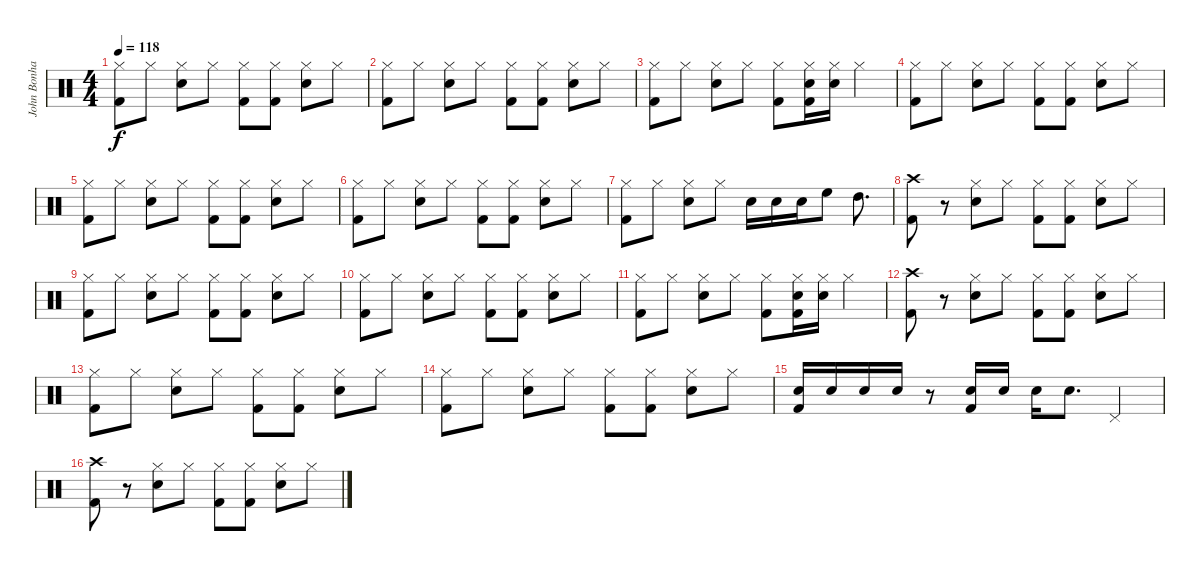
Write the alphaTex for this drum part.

\track ("John Bonham (Bateria)" "John Bonha") {instrument percussion}
\staff {score}
\articulation defaults
\ts (4 4)
\tempo 118
\clef neutral
\ks c
("Hi-Hat (closed)" "Kick (hit) 2").8{dy f} "Hi-Hat (closed)".8 ("Snare (hit) 2" "Hi-Hat (closed)").8 "Hi-Hat (closed)".8 ("Kick (hit) 2" "Hi-Hat (closed)").8 ("Kick (hit) 2" "Hi-Hat (closed)").8 ("Snare (hit) 2" "Hi-Hat (closed)").8 "Hi-Hat (closed)".8 |
("Hi-Hat (closed)" "Kick (hit) 2").8 "Hi-Hat (closed)".8 ("Snare (hit) 2" "Hi-Hat (closed)").8 "Hi-Hat (closed)".8 ("Kick (hit) 2" "Hi-Hat (closed)").8 ("Kick (hit) 2" "Hi-Hat (closed)").8 ("Snare (hit) 2" "Hi-Hat (closed)").8 "Hi-Hat (closed)".8 |
("Hi-Hat (closed)" "Kick (hit) 2").8 "Hi-Hat (closed)".8 ("Hi-Hat (closed)" "Snare (hit) 2").8 "Hi-Hat (closed)".8 ("Hi-Hat (closed)" "Kick (hit) 2").8 ("Hi-Hat (closed)" "Snare (hit) 2" "Kick (hit) 2").16 ("Hi-Hat (closed)" "Snare (hit) 2").16 "Hi-Hat (closed)".4 |
("Hi-Hat (closed)" "Kick (hit) 2").8 "Hi-Hat (closed)".8 ("Snare (hit) 2" "Hi-Hat (closed)").8 "Hi-Hat (closed)".8 ("Kick (hit) 2" "Hi-Hat (closed)").8 ("Kick (hit) 2" "Hi-Hat (closed)").8 ("Snare (hit) 2" "Hi-Hat (closed)").8 "Hi-Hat (closed)".8 |
("Hi-Hat (closed)" "Kick (hit) 2").8 "Hi-Hat (closed)".8 ("Snare (hit) 2" "Hi-Hat (closed)").8 "Hi-Hat (closed)".8 ("Kick (hit) 2" "Hi-Hat (closed)").8 ("Kick (hit) 2" "Hi-Hat (closed)").8 ("Snare (hit) 2" "Hi-Hat (closed)").8 "Hi-Hat (closed)".8 |
("Hi-Hat (closed)" "Kick (hit) 2").8 "Hi-Hat (closed)".8 ("Snare (hit) 2" "Hi-Hat (closed)").8 "Hi-Hat (closed)".8 ("Kick (hit) 2" "Hi-Hat (closed)").8 ("Kick (hit) 2" "Hi-Hat (closed)").8 ("Snare (hit) 2" "Hi-Hat (closed)").8 "Hi-Hat (closed)".8 |
("Hi-Hat (closed)" "Kick (hit) 2").8 "Hi-Hat (closed)".8 ("Snare (hit) 2" "Hi-Hat (closed)").8 "Hi-Hat (closed)".8 "Snare (hit) 2".16 "Snare (hit) 2".16 "Snare (hit) 2".16 "High Floor Tom (hit)".8 "High Tom (hit)".8{d} |
("Crash high (hit)" "Kick (hit) 2").8 r.8 ("Snare (hit) 2" "Hi-Hat (closed)").8 "Hi-Hat (closed)".8 ("Hi-Hat (closed)" "Kick (hit) 2").8 ("Hi-Hat (closed)" "Kick (hit) 2").8 ("Hi-Hat (closed)" "Snare (hit) 2").8 "Hi-Hat (closed)".8 |
("Hi-Hat (closed)" "Kick (hit) 2").8 "Hi-Hat (closed)".8 ("Snare (hit) 2" "Hi-Hat (closed)").8 "Hi-Hat (closed)".8 ("Kick (hit) 2" "Hi-Hat (closed)").8 ("Kick (hit) 2" "Hi-Hat (closed)").8 ("Snare (hit) 2" "Hi-Hat (closed)").8 "Hi-Hat (closed)".8 |
("Hi-Hat (closed)" "Kick (hit) 2").8 "Hi-Hat (closed)".8 ("Snare (hit) 2" "Hi-Hat (closed)").8 "Hi-Hat (closed)".8 ("Kick (hit) 2" "Hi-Hat (closed)").8 ("Kick (hit) 2" "Hi-Hat (closed)").8 ("Snare (hit) 2" "Hi-Hat (closed)").8 "Hi-Hat (closed)".8 |
("Hi-Hat (closed)" "Kick (hit) 2").8 "Hi-Hat (closed)".8 ("Hi-Hat (closed)" "Snare (hit) 2").8 "Hi-Hat (closed)".8 ("Hi-Hat (closed)" "Kick (hit) 2").8 ("Hi-Hat (closed)" "Kick (hit) 2" "Snare (hit) 2").16 ("Hi-Hat (closed)" "Snare (hit) 2").16 "Hi-Hat (closed)".4 |
("Crash high (hit)" "Kick (hit) 2").8 r.8 ("Snare (hit) 2" "Hi-Hat (closed)").8 "Hi-Hat (closed)".8 ("Hi-Hat (closed)" "Kick (hit) 2").8 ("Hi-Hat (closed)" "Kick (hit) 2").8 ("Hi-Hat (closed)" "Snare (hit) 2").8 "Hi-Hat (closed)".8 |
("Hi-Hat (closed)" "Kick (hit) 2").8 "Hi-Hat (closed)".8 ("Snare (hit) 2" "Hi-Hat (closed)").8 "Hi-Hat (closed)".8 ("Kick (hit) 2" "Hi-Hat (closed)").8 ("Kick (hit) 2" "Hi-Hat (closed)").8 ("Snare (hit) 2" "Hi-Hat (closed)").8 "Hi-Hat (closed)".8 |
("Hi-Hat (closed)" "Kick (hit) 2").8 "Hi-Hat (closed)".8 ("Snare (hit) 2" "Hi-Hat (closed)").8 "Hi-Hat (closed)".8 ("Kick (hit) 2" "Hi-Hat (closed)").8 ("Kick (hit) 2" "Hi-Hat (closed)").8 ("Snare (hit) 2" "Hi-Hat (closed)").8 "Hi-Hat (closed)".8 |
("Kick (hit) 2" "Snare (hit) 2").16 "Snare (hit) 2".16 "Snare (hit) 2".16 "Snare (hit) 2".16 r.8 ("Snare (hit) 2" "Kick (hit) 2").16 "Snare (hit) 2".16 "Snare (hit) 2".16 "Snare (hit) 2".8{d} "Pedal Hi-Hat (hit)".4 |
("Crash high (hit)" "Kick (hit) 2").8 r.8 ("Snare (hit) 2" "Hi-Hat (closed)").8 "Hi-Hat (closed)".8 ("Hi-Hat (closed)" "Kick (hit) 2").8 ("Hi-Hat (closed)" "Kick (hit) 2").8 ("Hi-Hat (closed)" "Snare (hit) 2").8 "Hi-Hat (closed)".8
